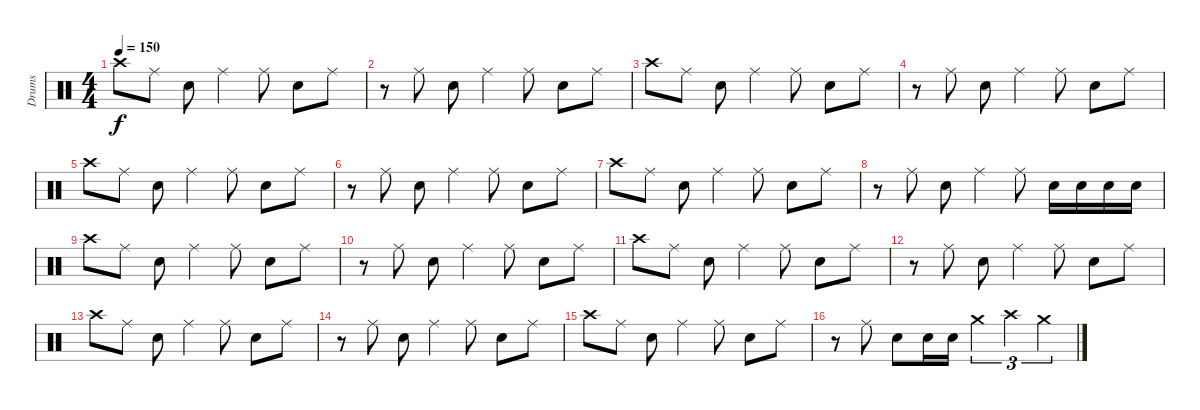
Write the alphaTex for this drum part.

\track ("Drums" "Drums") {instrument percussion}
\staff {score}
\articulation defaults
\ts (4 4)
\tempo 150
\clef neutral
\ks c "Crash high (hit)".8{dy f} "Ride (middle)".8 "Electric Snare (hit)".8 "Ride (middle)".4 "Ride (middle)".8 "Electric Snare (hit)".8 "Ride (middle)".8
|
r.8 "Ride (middle)".8 "Electric Snare (hit)".8 "Ride (middle)".4 "Ride (middle)".8 "Electric Snare (hit)".8 "Ride (middle)".8 |
"Crash high (hit)".8 "Ride (middle)".8 "Electric Snare (hit)".8 "Ride (middle)".4 "Ride (middle)".8 "Electric Snare (hit)".8 "Ride (middle)".8 |
r.8 "Ride (middle)".8 "Electric Snare (hit)".8 "Ride (middle)".4 "Ride (middle)".8 "Electric Snare (hit)".8 "Ride (middle)".8 |
"Crash high (hit)".8 "Ride (middle)".8 "Electric Snare (hit)".8 "Ride (middle)".4 "Ride (middle)".8 "Electric Snare (hit)".8 "Ride (middle)".8 |
r.8 "Ride (middle)".8 "Electric Snare (hit)".8 "Ride (middle)".4 "Ride (middle)".8 "Electric Snare (hit)".8 "Ride (middle)".8 |
"Crash high (hit)".8 "Ride (middle)".8 "Electric Snare (hit)".8 "Ride (middle)".4 "Ride (middle)".8 "Electric Snare (hit)".8 "Ride (middle)".8 |
r.8 "Ride (middle)".8 "Electric Snare (hit)".8 "Ride (middle)".4 "Ride (middle)".8 "Electric Snare (hit)".16 "Electric Snare (hit)".16 "Electric Snare (hit)".16 "Electric Snare (hit)".16 |
"Crash high (hit)".8 "Ride (middle)".8 "Electric Snare (hit)".8 "Ride (middle)".4 "Ride (middle)".8 "Electric Snare (hit)".8 "Ride (middle)".8 |
r.8 "Ride (middle)".8 "Electric Snare (hit)".8 "Ride (middle)".4 "Ride (middle)".8 "Electric Snare (hit)".8 "Ride (middle)".8 |
"Crash high (hit)".8 "Ride (middle)".8 "Electric Snare (hit)".8 "Ride (middle)".4 "Ride (middle)".8 "Electric Snare (hit)".8 "Ride (middle)".8 |
r.8 "Ride (middle)".8 "Electric Snare (hit)".8 "Ride (middle)".4 "Ride (middle)".8 "Electric Snare (hit)".8 "Ride (middle)".8 |
"Crash high (hit)".8 "Ride (middle)".8 "Electric Snare (hit)".8 "Ride (middle)".4 "Ride (middle)".8 "Electric Snare (hit)".8 "Ride (middle)".8 |
r.8 "Ride (middle)".8 "Electric Snare (hit)".8 "Ride (middle)".4 "Ride (middle)".8 "Electric Snare (hit)".8 "Ride (middle)".8 |
"Crash high (hit)".8 "Ride (middle)".8 "Electric Snare (hit)".8 "Ride (middle)".4 "Ride (middle)".8 "Electric Snare (hit)".8 "Ride (middle)".8 |
r.8 "Ride (middle)".8 "Electric Snare (hit)".8 "Electric Snare (hit)".16 "Electric Snare (hit)".16 "Crash medium (hit)".4{tu (3 2)} "Crash high (hit)".4{tu (3 2)} "Crash medium (hit)".4{tu (3 2)}
